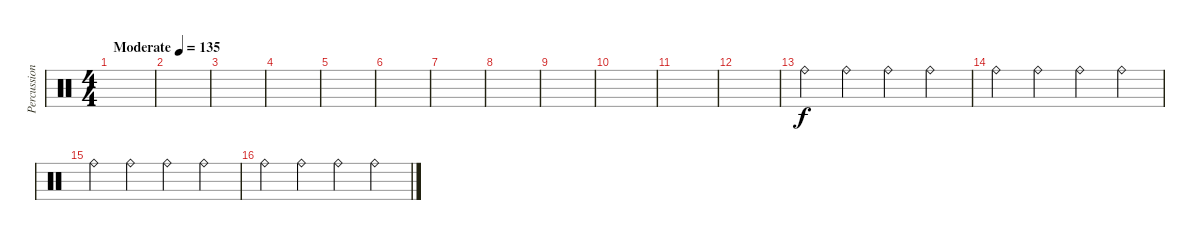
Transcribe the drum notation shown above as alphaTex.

\track ("Percussion" "Percussion") {instrument percussion}
\staff {score}
\articulation defaults
\ts (4 4)
\tempo (135 "Moderate")
\clef neutral
\ks c
|
|
|
|
|
|
|
|
|
|
|
|
"Ride (bell)".4 "Ride (bell)".4 "Ride (bell)".4 "Ride (bell)".4 |
"Ride (bell)".4 "Ride (bell)".4 "Ride (bell)".4 "Ride (bell)".4 |
"Ride (bell)".4 "Ride (bell)".4 "Ride (bell)".4 "Ride (bell)".4 |
"Ride (bell)".4 "Ride (bell)".4 "Ride (bell)".4 "Ride (bell)".4
